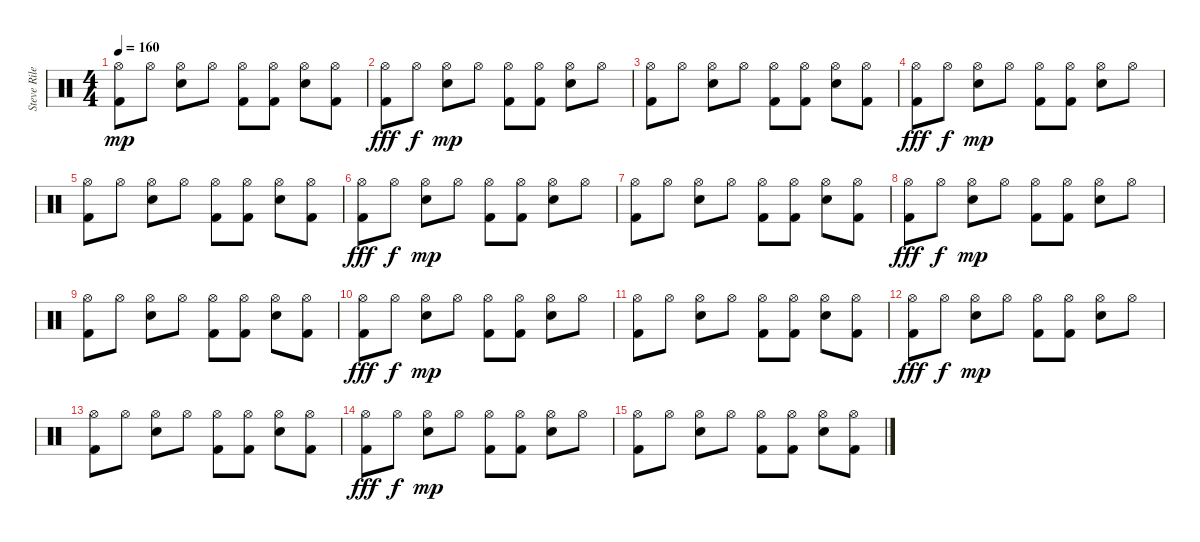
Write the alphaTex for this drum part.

\track ("Steve Riley" "Steve Rile") {instrument percussion}
\staff {score}
\articulation defaults
\ts (4 4)
\tempo 160
\clef neutral
\ks c
("Hi-Hat (open)" "Kick (hit) 2").8{dy mp} "Hi-Hat (open)".8 ("Hi-Hat (open)" "Snare (hit) 2").8 "Hi-Hat (open)".8 ("Hi-Hat (open)" "Kick (hit) 2").8 ("Hi-Hat (open)" "Kick (hit) 2").8 ("Hi-Hat (open)" "Snare (hit) 2").8 ("Hi-Hat (open)" "Kick (hit) 2").8 |
("Hi-Hat (open)" "Kick (hit) 2").8{dy fff} "Hi-Hat (open)".8{dy f} ("Hi-Hat (open)" "Snare (hit) 2").8{dy mp} "Hi-Hat (open)".8 ("Hi-Hat (open)" "Kick (hit) 2").8 ("Hi-Hat (open)" "Kick (hit) 2").8 ("Hi-Hat (open)" "Snare (hit) 2").8 "Hi-Hat (open)".8 |
("Hi-Hat (open)" "Kick (hit) 2").8 "Hi-Hat (open)".8 ("Hi-Hat (open)" "Snare (hit) 2").8 "Hi-Hat (open)".8 ("Hi-Hat (open)" "Kick (hit) 2").8 ("Hi-Hat (open)" "Kick (hit) 2").8 ("Hi-Hat (open)" "Snare (hit) 2").8 ("Hi-Hat (open)" "Kick (hit) 2").8 |
("Hi-Hat (open)" "Kick (hit) 2").8{dy fff} "Hi-Hat (open)".8{dy f} ("Hi-Hat (open)" "Snare (hit) 2").8{dy mp} "Hi-Hat (open)".8 ("Hi-Hat (open)" "Kick (hit) 2").8 ("Hi-Hat (open)" "Kick (hit) 2").8 ("Hi-Hat (open)" "Snare (hit) 2").8 "Hi-Hat (open)".8 |
("Hi-Hat (open)" "Kick (hit) 2").8 "Hi-Hat (open)".8 ("Hi-Hat (open)" "Snare (hit) 2").8 "Hi-Hat (open)".8 ("Hi-Hat (open)" "Kick (hit) 2").8 ("Hi-Hat (open)" "Kick (hit) 2").8 ("Hi-Hat (open)" "Snare (hit) 2").8 ("Hi-Hat (open)" "Kick (hit) 2").8 |
("Hi-Hat (open)" "Kick (hit) 2").8{dy fff} "Hi-Hat (open)".8{dy f} ("Hi-Hat (open)" "Snare (hit) 2").8{dy mp} "Hi-Hat (open)".8 ("Hi-Hat (open)" "Kick (hit) 2").8 ("Hi-Hat (open)" "Kick (hit) 2").8 ("Hi-Hat (open)" "Snare (hit) 2").8 "Hi-Hat (open)".8 |
("Hi-Hat (open)" "Kick (hit) 2").8 "Hi-Hat (open)".8 ("Hi-Hat (open)" "Snare (hit) 2").8 "Hi-Hat (open)".8 ("Hi-Hat (open)" "Kick (hit) 2").8 ("Hi-Hat (open)" "Kick (hit) 2").8 ("Hi-Hat (open)" "Snare (hit) 2").8 ("Hi-Hat (open)" "Kick (hit) 2").8 |
("Hi-Hat (open)" "Kick (hit) 2").8{dy fff} "Hi-Hat (open)".8{dy f} ("Hi-Hat (open)" "Snare (hit) 2").8{dy mp} "Hi-Hat (open)".8 ("Hi-Hat (open)" "Kick (hit) 2").8 ("Hi-Hat (open)" "Kick (hit) 2").8 ("Hi-Hat (open)" "Snare (hit) 2").8 "Hi-Hat (open)".8 |
("Hi-Hat (open)" "Kick (hit) 2").8 "Hi-Hat (open)".8 ("Hi-Hat (open)" "Snare (hit) 2").8 "Hi-Hat (open)".8 ("Hi-Hat (open)" "Kick (hit) 2").8 ("Hi-Hat (open)" "Kick (hit) 2").8 ("Hi-Hat (open)" "Snare (hit) 2").8 ("Hi-Hat (open)" "Kick (hit) 2").8 |
("Hi-Hat (open)" "Kick (hit) 2").8{dy fff} "Hi-Hat (open)".8{dy f} ("Hi-Hat (open)" "Snare (hit) 2").8{dy mp} "Hi-Hat (open)".8 ("Hi-Hat (open)" "Kick (hit) 2").8 ("Hi-Hat (open)" "Kick (hit) 2").8 ("Hi-Hat (open)" "Snare (hit) 2").8 "Hi-Hat (open)".8 |
("Hi-Hat (open)" "Kick (hit) 2").8 "Hi-Hat (open)".8 ("Hi-Hat (open)" "Snare (hit) 2").8 "Hi-Hat (open)".8 ("Hi-Hat (open)" "Kick (hit) 2").8 ("Hi-Hat (open)" "Kick (hit) 2").8 ("Hi-Hat (open)" "Snare (hit) 2").8 ("Hi-Hat (open)" "Kick (hit) 2").8 |
("Hi-Hat (open)" "Kick (hit) 2").8{dy fff} "Hi-Hat (open)".8{dy f} ("Hi-Hat (open)" "Snare (hit) 2").8{dy mp} "Hi-Hat (open)".8 ("Hi-Hat (open)" "Kick (hit) 2").8 ("Hi-Hat (open)" "Kick (hit) 2").8 ("Hi-Hat (open)" "Snare (hit) 2").8 "Hi-Hat (open)".8 |
("Hi-Hat (open)" "Kick (hit) 2").8 "Hi-Hat (open)".8 ("Hi-Hat (open)" "Snare (hit) 2").8 "Hi-Hat (open)".8 ("Hi-Hat (open)" "Kick (hit) 2").8 ("Hi-Hat (open)" "Kick (hit) 2").8 ("Hi-Hat (open)" "Snare (hit) 2").8 ("Hi-Hat (open)" "Kick (hit) 2").8 |
("Hi-Hat (open)" "Kick (hit) 2").8{dy fff} "Hi-Hat (open)".8{dy f} ("Hi-Hat (open)" "Snare (hit) 2").8{dy mp} "Hi-Hat (open)".8 ("Hi-Hat (open)" "Kick (hit) 2").8 ("Hi-Hat (open)" "Kick (hit) 2").8 ("Hi-Hat (open)" "Snare (hit) 2").8 "Hi-Hat (open)".8 |
("Hi-Hat (open)" "Kick (hit) 2").8 "Hi-Hat (open)".8 ("Hi-Hat (open)" "Snare (hit) 2").8 "Hi-Hat (open)".8 ("Hi-Hat (open)" "Kick (hit) 2").8 ("Hi-Hat (open)" "Kick (hit) 2").8 ("Hi-Hat (open)" "Snare (hit) 2").8 ("Hi-Hat (open)" "Kick (hit) 2").8
